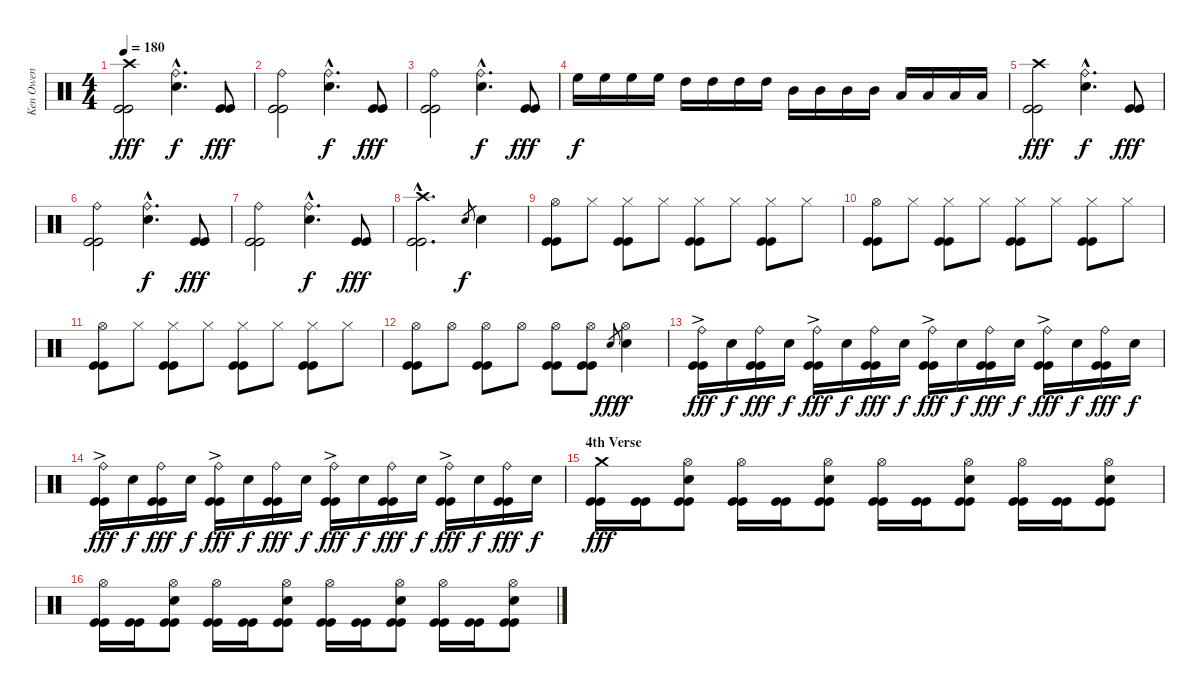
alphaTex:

\track ("Ken Owen" "Ken Owen") {instrument percussion}
\staff {score}
\articulation defaults
\ts (4 4)
\tempo 180
\clef neutral
\ks c
("Crash high (hit)" "Kick (hit)" "Kick (hit)").2{dy fff} ("Ride (bell)"{hac} "Snare (hit) 2"{hac}).4{d dy f} ("Kick (hit)" "Kick (hit)").8{dy fff} |
("Ride (bell)" "Kick (hit)" "Kick (hit)").2 ("Ride (bell)"{hac} "Snare (hit) 2"{hac}).4{d dy f} ("Kick (hit)" "Kick (hit)").8{dy fff} |
("Ride (bell)" "Kick (hit)" "Kick (hit)").2 ("Ride (bell)"{hac} "Snare (hit) 2"{hac}).4{d dy f} ("Kick (hit)" "Kick (hit)").8{dy fff} |
"High Floor Tom (hit)".16{dy f} "High Floor Tom (hit)".16 "High Floor Tom (hit)".16 "High Floor Tom (hit)".16 "High Tom (hit)".16 "High Tom (hit)".16 "High Tom (hit)".16 "High Tom (hit)".16 "Mid Tom (hit)".16 "Mid Tom (hit)".16 "Mid Tom (hit)".16 "Mid Tom (hit)".16 "Low Tom (hit)".16 "Low Tom (hit)".16 "Low Tom (hit)".16 "Low Tom (hit)".16 |
("Crash high (hit)" "Kick (hit)" "Kick (hit)").2{dy fff} ("Ride (bell)"{hac} "Snare (hit) 2"{hac}).4{d dy f} ("Kick (hit)" "Kick (hit)").8{dy fff} |
("Ride (bell)" "Kick (hit)" "Kick (hit)").2 ("Ride (bell)"{hac} "Snare (hit) 2"{hac}).4{d dy f} ("Kick (hit)" "Kick (hit)").8{dy fff} |
("Ride (bell)" "Kick (hit)" "Kick (hit)").2 ("Ride (bell)"{hac} "Snare (hit) 2"{hac}).4{d dy f} ("Kick (hit)" "Kick (hit)").8{dy fff} |
("Crash high (hit)"{hac} "Kick (hit)"{hac} "Kick (hit)"{hac}).2{d} "Snare (hit) 2".8{gr dy f} "Snare (hit) 2".4 |
("Hi-Hat (open)"{tr (46 64)} "Kick (hit)" "Kick (hit)").8 "Hi-Hat (closed)"{tr (42 32)}.8 ("Hi-Hat (closed)"{tr (42 32)} "Kick (hit)" "Kick (hit)").8 "Hi-Hat (closed)"{tr (42 32)}.8 ("Hi-Hat (closed)"{tr (42 32)} "Kick (hit)" "Kick (hit)").8 "Hi-Hat (closed)"{tr (42 32)}.8 ("Hi-Hat (closed)"{tr (42 32)} "Kick (hit)" "Kick (hit)").8 "Hi-Hat (closed)"{tr (42 32)}.8 |
("Hi-Hat (open)"{tr (46 64)} "Kick (hit)" "Kick (hit)").8 "Hi-Hat (closed)"{tr (42 32)}.8 ("Hi-Hat (closed)"{tr (42 32)} "Kick (hit)" "Kick (hit)").8 "Hi-Hat (closed)"{tr (42 32)}.8 ("Hi-Hat (closed)"{tr (42 32)} "Kick (hit)" "Kick (hit)").8 "Hi-Hat (closed)"{tr (42 32)}.8 ("Hi-Hat (closed)"{tr (42 32)} "Kick (hit)" "Kick (hit)").8 "Hi-Hat (closed)"{tr (42 32)}.8 |
("Hi-Hat (open)"{tr (46 64)} "Kick (hit)" "Kick (hit)").8 "Hi-Hat (closed)"{tr (42 32)}.8 ("Hi-Hat (closed)"{tr (42 32)} "Kick (hit)" "Kick (hit)").8 "Hi-Hat (closed)"{tr (42 32)}.8 ("Hi-Hat (closed)"{tr (42 32)} "Kick (hit)" "Kick (hit)").8 "Hi-Hat (closed)"{tr (42 32)}.8 ("Hi-Hat (closed)"{tr (42 32)} "Kick (hit)" "Kick (hit)").8 "Hi-Hat (closed)"{tr (42 32)}.8 |
("Hi-Hat (open)"{tr (46 32)} "Kick (hit)" "Kick (hit)").8 "Hi-Hat (open)"{tr (46 32)}.8 ("Hi-Hat (open)"{tr (46 32)} "Kick (hit)" "Kick (hit)").8 "Hi-Hat (open)"{tr (46 32)}.8 ("Hi-Hat (open)"{tr (46 32)} "Kick (hit)" "Kick (hit)").8 ("Hi-Hat (open)"{tr (46 32)} "Kick (hit)" "Kick (hit)").8 "Snare (hit) 2".8{gr dy fff} ("Hi-Hat (open)" "Snare (hit) 2").4{dy f} |
("Ride (bell)"{ac} "Kick (hit)" "Kick (hit)").16{dy fff} "Snare (hit) 2".16{dy f} ("Ride (bell)" "Kick (hit)" "Kick (hit)").16{dy fff} "Snare (hit) 2".16{dy f} ("Ride (bell)"{ac} "Kick (hit)" "Kick (hit)").16{dy fff} "Snare (hit) 2".16{dy f} ("Ride (bell)" "Kick (hit)" "Kick (hit)").16{dy fff} "Snare (hit) 2".16{dy f} ("Ride (bell)"{ac} "Kick (hit)" "Kick (hit)").16{dy fff} "Snare (hit) 2".16{dy f} ("Ride (bell)" "Kick (hit)" "Kick (hit)").16{dy fff} "Snare (hit) 2".16{dy f} ("Ride (bell)"{ac} "Kick (hit)" "Kick (hit)").16{dy fff} "Snare (hit) 2".16{dy f} ("Ride (bell)" "Kick (hit)" "Kick (hit)").16{dy fff} "Snare (hit) 2".16{dy f} |
("Ride (bell)"{ac} "Kick (hit)" "Kick (hit)").16{dy fff} "Snare (hit) 2".16{dy f} ("Ride (bell)" "Kick (hit)" "Kick (hit)").16{dy fff} "Snare (hit) 2".16{dy f} ("Ride (bell)"{ac} "Kick (hit)" "Kick (hit)").16{dy fff} "Snare (hit) 2".16{dy f} ("Ride (bell)" "Kick (hit)" "Kick (hit)").16{dy fff} "Snare (hit) 2".16{dy f} ("Ride (bell)"{ac} "Kick (hit)" "Kick (hit)").16{dy fff} "Snare (hit) 2".16{dy f} ("Ride (bell)" "Kick (hit)" "Kick (hit)").16{dy fff} "Snare (hit) 2".16{dy f} ("Ride (bell)"{ac} "Kick (hit)" "Kick (hit)").16{dy fff} "Snare (hit) 2".16{dy f} ("Ride (bell)" "Kick (hit)" "Kick (hit)").16{dy fff} "Snare (hit) 2".16{dy f} |
\section ("" "4th Verse")
("Crash medium (hit)" "Kick (hit)" "Kick (hit)").16{dy fff} ("Kick (hit)" "Kick (hit)").16 ("Hi-Hat (open)" "Snare (hit) 2" "Kick (hit)" "Kick (hit)").8 ("Hi-Hat (open)" "Kick (hit)" "Kick (hit)").16 ("Kick (hit)" "Kick (hit)").16 ("Hi-Hat (open)" "Snare (hit) 2" "Kick (hit)" "Kick (hit)").8 ("Hi-Hat (open)" "Kick (hit)" "Kick (hit)").16 ("Kick (hit)" "Kick (hit)").16 ("Hi-Hat (open)" "Snare (hit) 2" "Kick (hit)" "Kick (hit)").8 ("Hi-Hat (open)" "Kick (hit)" "Kick (hit)").16 ("Kick (hit)" "Kick (hit)").16 ("Hi-Hat (open)" "Snare (hit) 2" "Kick (hit)" "Kick (hit)").8 |
("Hi-Hat (open)" "Kick (hit)" "Kick (hit)").16 ("Kick (hit)" "Kick (hit)").16 ("Hi-Hat (open)" "Snare (hit) 2" "Kick (hit)" "Kick (hit)").8 ("Hi-Hat (open)" "Kick (hit)" "Kick (hit)").16 ("Kick (hit)" "Kick (hit)").16 ("Hi-Hat (open)" "Snare (hit) 2" "Kick (hit)" "Kick (hit)").8 ("Hi-Hat (open)" "Kick (hit)" "Kick (hit)").16 ("Kick (hit)" "Kick (hit)").16 ("Hi-Hat (open)" "Snare (hit) 2" "Kick (hit)" "Kick (hit)").8 ("Hi-Hat (open)" "Kick (hit)" "Kick (hit)").16 ("Kick (hit)" "Kick (hit)").16 ("Hi-Hat (open)" "Snare (hit) 2" "Kick (hit)" "Kick (hit)").8
